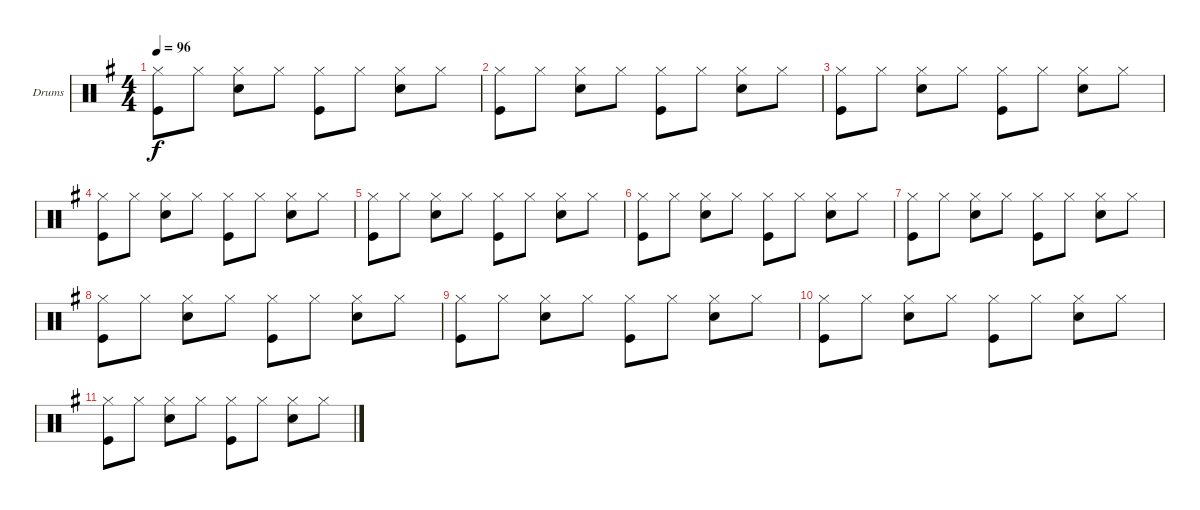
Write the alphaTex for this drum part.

\bracketExtendMode groupsimilarinstruments
\firstSystemTrackNameOrientation horizontal
\otherSystemsTrackNameOrientation horizontal
\track ("Drumkit" "Drums") {instrument percussion}
\staff {score}
\articulation defaults
\ts (4 4)
\tempo 96
\clef neutral
\ks eminor
("Hi-Hat (closed)" "Kick (hit)").8{dy f} "Hi-Hat (closed)".8 ("Hi-Hat (closed)" "Snare (hit) 2").8 "Hi-Hat (closed)".8 ("Hi-Hat (closed)" "Kick (hit)").8 "Hi-Hat (closed)".8 ("Hi-Hat (closed)" "Snare (hit) 2").8 "Hi-Hat (closed)".8 |
("Hi-Hat (closed)" "Kick (hit)").8 "Hi-Hat (closed)".8 ("Hi-Hat (closed)" "Snare (hit) 2").8 "Hi-Hat (closed)".8 ("Hi-Hat (closed)" "Kick (hit)").8 "Hi-Hat (closed)".8 ("Hi-Hat (closed)" "Snare (hit) 2").8 "Hi-Hat (closed)".8 |
("Hi-Hat (closed)" "Kick (hit)").8 "Hi-Hat (closed)".8 ("Hi-Hat (closed)" "Snare (hit) 2").8 "Hi-Hat (closed)".8 ("Hi-Hat (closed)" "Kick (hit)").8 "Hi-Hat (closed)".8 ("Hi-Hat (closed)" "Snare (hit) 2").8 "Hi-Hat (closed)".8 |
("Hi-Hat (closed)" "Kick (hit)").8 "Hi-Hat (closed)".8 ("Hi-Hat (closed)" "Snare (hit) 2").8 "Hi-Hat (closed)".8 ("Hi-Hat (closed)" "Kick (hit)").8 "Hi-Hat (closed)".8 ("Hi-Hat (closed)" "Snare (hit) 2").8 "Hi-Hat (closed)".8 |
("Hi-Hat (closed)" "Kick (hit)").8 "Hi-Hat (closed)".8 ("Hi-Hat (closed)" "Snare (hit) 2").8 "Hi-Hat (closed)".8 ("Hi-Hat (closed)" "Kick (hit)").8 "Hi-Hat (closed)".8 ("Hi-Hat (closed)" "Snare (hit) 2").8 "Hi-Hat (closed)".8 |
("Hi-Hat (closed)" "Kick (hit)").8 "Hi-Hat (closed)".8 ("Hi-Hat (closed)" "Snare (hit) 2").8 "Hi-Hat (closed)".8 ("Hi-Hat (closed)" "Kick (hit)").8 "Hi-Hat (closed)".8 ("Hi-Hat (closed)" "Snare (hit) 2").8 "Hi-Hat (closed)".8 |
("Hi-Hat (closed)" "Kick (hit)").8 "Hi-Hat (closed)".8 ("Hi-Hat (closed)" "Snare (hit) 2").8 "Hi-Hat (closed)".8 ("Hi-Hat (closed)" "Kick (hit)").8 "Hi-Hat (closed)".8 ("Hi-Hat (closed)" "Snare (hit) 2").8 "Hi-Hat (closed)".8 |
("Hi-Hat (closed)" "Kick (hit)").8 "Hi-Hat (closed)".8 ("Hi-Hat (closed)" "Snare (hit) 2").8 "Hi-Hat (closed)".8 ("Hi-Hat (closed)" "Kick (hit)").8 "Hi-Hat (closed)".8 ("Hi-Hat (closed)" "Snare (hit) 2").8 "Hi-Hat (closed)".8 |
("Hi-Hat (closed)" "Kick (hit)").8 "Hi-Hat (closed)".8 ("Hi-Hat (closed)" "Snare (hit) 2").8 "Hi-Hat (closed)".8 ("Hi-Hat (closed)" "Kick (hit)").8 "Hi-Hat (closed)".8 ("Hi-Hat (closed)" "Snare (hit) 2").8 "Hi-Hat (closed)".8 |
("Hi-Hat (closed)" "Kick (hit)").8 "Hi-Hat (closed)".8 ("Hi-Hat (closed)" "Snare (hit) 2").8 "Hi-Hat (closed)".8 ("Hi-Hat (closed)" "Kick (hit)").8 "Hi-Hat (closed)".8 ("Hi-Hat (closed)" "Snare (hit) 2").8 "Hi-Hat (closed)".8 |
("Hi-Hat (closed)" "Kick (hit)").8 "Hi-Hat (closed)".8 ("Hi-Hat (closed)" "Snare (hit) 2").8 "Hi-Hat (closed)".8 ("Hi-Hat (closed)" "Kick (hit)").8 "Hi-Hat (closed)".8 ("Hi-Hat (closed)" "Snare (hit) 2").8 "Hi-Hat (closed)".8
